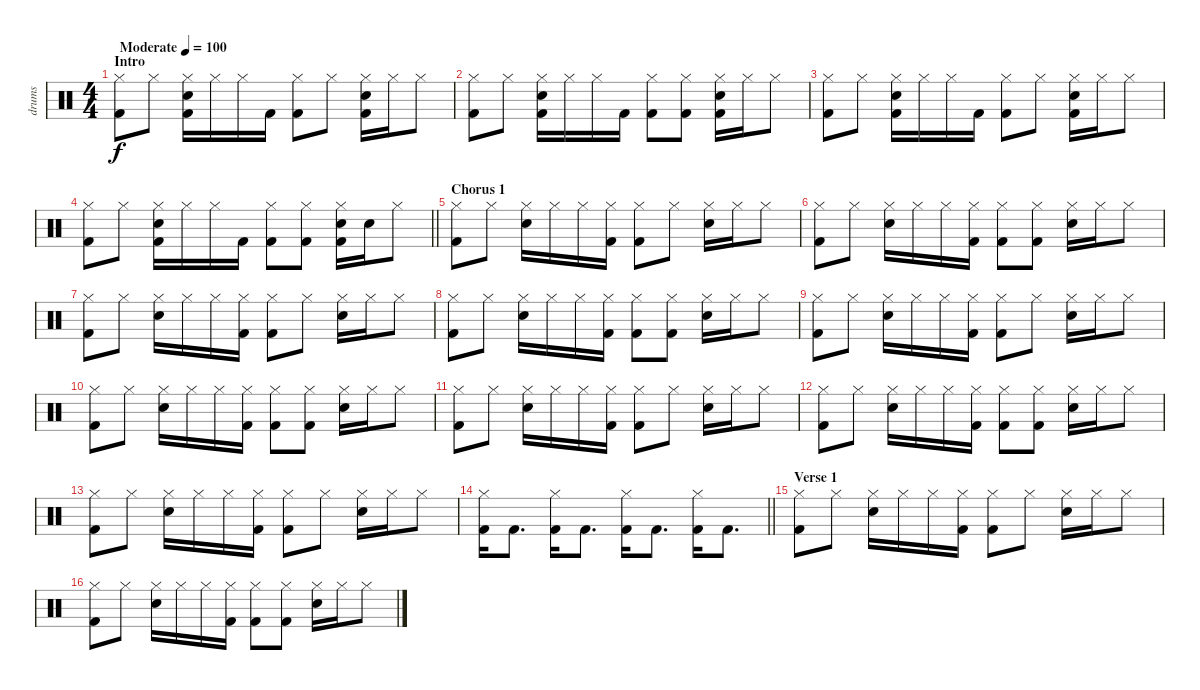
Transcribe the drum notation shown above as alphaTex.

\track ("drums" "drums") {instrument percussion}
\staff {score}
\articulation defaults
\ts (4 4)
\section ("" "Intro")
\tempo (100 "Moderate")
\clef neutral
\ks c
("Hi-Hat (closed)" "Kick (hit) 2").8{dy f} "Hi-Hat (closed)".8 ("Electric Snare (hit)" "Hi-Hat (closed)" "Kick (hit) 2").16 "Hi-Hat (closed)".16 "Hi-Hat (closed)".16 "Kick (hit) 2".16 ("Hi-Hat (closed)" "Kick (hit) 2").8 "Hi-Hat (closed)".8 ("Electric Snare (hit)" "Hi-Hat (closed)" "Kick (hit) 2").16 "Hi-Hat (closed)".16 "Hi-Hat (closed)".8 |
("Hi-Hat (closed)" "Kick (hit) 2").8 "Hi-Hat (closed)".8 ("Electric Snare (hit)" "Hi-Hat (closed)" "Kick (hit) 2").16 "Hi-Hat (closed)".16 "Hi-Hat (closed)".16 "Kick (hit) 2".16 ("Hi-Hat (closed)" "Kick (hit) 2").8 ("Hi-Hat (closed)" "Kick (hit) 2").8 ("Electric Snare (hit)" "Hi-Hat (closed)" "Kick (hit) 2").16 "Hi-Hat (closed)".16 "Hi-Hat (closed)".8 |
("Hi-Hat (closed)" "Kick (hit) 2").8 "Hi-Hat (closed)".8 ("Electric Snare (hit)" "Hi-Hat (closed)" "Kick (hit) 2").16 "Hi-Hat (closed)".16 "Hi-Hat (closed)".16 "Kick (hit) 2".16 ("Hi-Hat (closed)" "Kick (hit) 2").8 "Hi-Hat (closed)".8 ("Electric Snare (hit)" "Hi-Hat (closed)" "Kick (hit) 2").16 "Hi-Hat (closed)".16 "Hi-Hat (closed)".8 |
\barLineRight lightlight
("Hi-Hat (closed)" "Kick (hit) 2").8 "Hi-Hat (closed)".8 ("Electric Snare (hit)" "Hi-Hat (closed)" "Kick (hit) 2").16 "Hi-Hat (closed)".16 "Hi-Hat (closed)".16 "Kick (hit) 2".16 ("Hi-Hat (closed)" "Kick (hit) 2").8 ("Hi-Hat (closed)" "Kick (hit) 2").8 ("Electric Snare (hit)" "Hi-Hat (closed)" "Kick (hit) 2").16 "Snare (hit)".16 "Hi-Hat (closed)".8 |
\section ("" "Chorus 1")
("Hi-Hat (closed)" "Kick (hit) 2").8 "Hi-Hat (closed)".8 ("Electric Snare (hit)" "Hi-Hat (closed)").16 "Hi-Hat (closed)".16 "Hi-Hat (closed)".16 ("Hi-Hat (closed)" "Kick (hit) 2").16 ("Hi-Hat (closed)" "Kick (hit) 2").8 "Hi-Hat (closed)".8 ("Electric Snare (hit)" "Hi-Hat (closed)").16 "Hi-Hat (closed)".16 "Hi-Hat (closed)".8 |
("Hi-Hat (closed)" "Kick (hit) 2").8 "Hi-Hat (closed)".8 ("Electric Snare (hit)" "Hi-Hat (closed)").16 "Hi-Hat (closed)".16 "Hi-Hat (closed)".16 ("Hi-Hat (closed)" "Kick (hit) 2").16 ("Hi-Hat (closed)" "Kick (hit) 2").8 ("Hi-Hat (closed)" "Kick (hit) 2").8 ("Electric Snare (hit)" "Hi-Hat (closed)").16 "Hi-Hat (closed)".16 "Hi-Hat (closed)".8 |
("Hi-Hat (closed)" "Kick (hit) 2").8 "Hi-Hat (closed)".8 ("Electric Snare (hit)" "Hi-Hat (closed)").16 "Hi-Hat (closed)".16 "Hi-Hat (closed)".16 ("Hi-Hat (closed)" "Kick (hit) 2").16 ("Hi-Hat (closed)" "Kick (hit) 2").8 "Hi-Hat (closed)".8 ("Electric Snare (hit)" "Hi-Hat (closed)").16 "Hi-Hat (closed)".16 "Hi-Hat (closed)".8 |
("Hi-Hat (closed)" "Kick (hit) 2").8 "Hi-Hat (closed)".8 ("Electric Snare (hit)" "Hi-Hat (closed)").16 "Hi-Hat (closed)".16 "Hi-Hat (closed)".16 ("Hi-Hat (closed)" "Kick (hit) 2").16 ("Hi-Hat (closed)" "Kick (hit) 2").8 ("Hi-Hat (closed)" "Kick (hit) 2").8 ("Electric Snare (hit)" "Hi-Hat (closed)").16 "Hi-Hat (closed)".16 "Hi-Hat (closed)".8 |
("Hi-Hat (closed)" "Kick (hit) 2").8 "Hi-Hat (closed)".8 ("Electric Snare (hit)" "Hi-Hat (closed)").16 "Hi-Hat (closed)".16 "Hi-Hat (closed)".16 ("Hi-Hat (closed)" "Kick (hit) 2").16 ("Hi-Hat (closed)" "Kick (hit) 2").8 "Hi-Hat (closed)".8 ("Electric Snare (hit)" "Hi-Hat (closed)").16 "Hi-Hat (closed)".16 "Hi-Hat (closed)".8 |
("Hi-Hat (closed)" "Kick (hit) 2").8 "Hi-Hat (closed)".8 ("Electric Snare (hit)" "Hi-Hat (closed)").16 "Hi-Hat (closed)".16 "Hi-Hat (closed)".16 ("Hi-Hat (closed)" "Kick (hit) 2").16 ("Hi-Hat (closed)" "Kick (hit) 2").8 ("Hi-Hat (closed)" "Kick (hit) 2").8 ("Electric Snare (hit)" "Hi-Hat (closed)").16 "Hi-Hat (closed)".16 "Hi-Hat (closed)".8 |
("Hi-Hat (closed)" "Kick (hit) 2").8 "Hi-Hat (closed)".8 ("Electric Snare (hit)" "Hi-Hat (closed)").16 "Hi-Hat (closed)".16 "Hi-Hat (closed)".16 ("Hi-Hat (closed)" "Kick (hit) 2").16 ("Hi-Hat (closed)" "Kick (hit) 2").8 "Hi-Hat (closed)".8 ("Electric Snare (hit)" "Hi-Hat (closed)").16 "Hi-Hat (closed)".16 "Hi-Hat (closed)".8 |
("Hi-Hat (closed)" "Kick (hit) 2").8 "Hi-Hat (closed)".8 ("Electric Snare (hit)" "Hi-Hat (closed)").16 "Hi-Hat (closed)".16 "Hi-Hat (closed)".16 ("Hi-Hat (closed)" "Kick (hit) 2").16 ("Hi-Hat (closed)" "Kick (hit) 2").8 ("Hi-Hat (closed)" "Kick (hit) 2").8 ("Electric Snare (hit)" "Hi-Hat (closed)").16 "Hi-Hat (closed)".16 "Hi-Hat (closed)".8 |
("Hi-Hat (closed)" "Kick (hit) 2").8 "Hi-Hat (closed)".8 ("Electric Snare (hit)" "Hi-Hat (closed)").16 "Hi-Hat (closed)".16 "Hi-Hat (closed)".16 ("Hi-Hat (closed)" "Kick (hit) 2").16 ("Hi-Hat (closed)" "Kick (hit) 2").8 "Hi-Hat (closed)".8 ("Electric Snare (hit)" "Hi-Hat (closed)").16 "Hi-Hat (closed)".16 "Hi-Hat (closed)".8 |
\barLineRight lightlight
("Hi-Hat (closed)" "Kick (hit) 2").16 "Kick (hit) 2".8{d} ("Hi-Hat (closed)" "Kick (hit) 2").16 "Kick (hit) 2".8{d} ("Hi-Hat (closed)" "Kick (hit) 2").16 "Kick (hit) 2".8{d} ("Hi-Hat (closed)" "Kick (hit) 2").16 "Kick (hit) 2".8{d} |
\section ("" "Verse 1")
("Hi-Hat (closed)" "Kick (hit) 2").8 "Hi-Hat (closed)".8 ("Electric Snare (hit)" "Hi-Hat (closed)").16 "Hi-Hat (closed)".16 "Hi-Hat (closed)".16 ("Hi-Hat (closed)" "Kick (hit) 2").16 ("Hi-Hat (closed)" "Kick (hit) 2").8 "Hi-Hat (closed)".8 ("Electric Snare (hit)" "Hi-Hat (closed)").16 "Hi-Hat (closed)".16 "Hi-Hat (closed)".8 |
("Hi-Hat (closed)" "Kick (hit) 2").8 "Hi-Hat (closed)".8 ("Electric Snare (hit)" "Hi-Hat (closed)").16 "Hi-Hat (closed)".16 "Hi-Hat (closed)".16 ("Hi-Hat (closed)" "Kick (hit) 2").16 ("Hi-Hat (closed)" "Kick (hit) 2").8 ("Hi-Hat (closed)" "Kick (hit) 2").8 ("Electric Snare (hit)" "Hi-Hat (closed)").16 "Hi-Hat (closed)".16 "Hi-Hat (closed)".8
